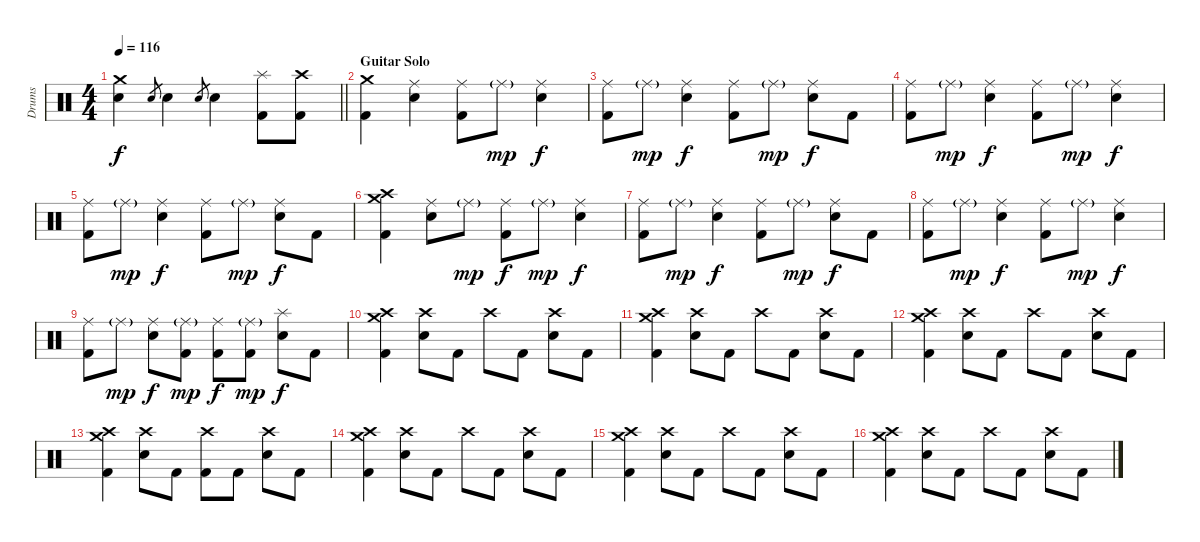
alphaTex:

\track ("Drums" "Drums") {instrument percussion}
\staff {score}
\articulation defaults
\ts (4 4)
\tempo 116
\clef neutral
\barLineRight lightlight
\ks c
("Crash medium (hit)" "Electric Snare (hit)").4{dy f} "Electric Snare (hit)".8{gr} "Electric Snare (hit)".4 "Electric Snare (hit)".8{gr} "Electric Snare (hit)".4 ("Splash (hit)" "Kick (hit) 2").8 ("Crash high (hit)" "Kick (hit) 2").8 |
\section ("" "Guitar Solo")
("Crash medium (hit)" "Kick (hit) 2").4 ("Ride (middle)" "Electric Snare (hit)").4 ("Ride (middle)" "Kick (hit) 2").8 "Ride (middle)"{g}.8{dy mp} ("Ride (middle)" "Electric Snare (hit)").4{dy f} |
("Ride (middle)" "Kick (hit) 2").8 "Ride (middle)"{g}.8{dy mp} ("Ride (middle)" "Electric Snare (hit)").4{dy f} ("Ride (middle)" "Kick (hit) 2").8 "Ride (middle)"{g}.8{dy mp} ("Ride (middle)" "Electric Snare (hit)").8{dy f} "Kick (hit) 2".8 |
("Ride (middle)" "Kick (hit) 2").8 "Ride (middle)"{g}.8{dy mp} ("Ride (middle)" "Electric Snare (hit)").4{dy f} ("Ride (middle)" "Kick (hit) 2").8 "Ride (middle)"{g}.8{dy mp} ("Ride (middle)" "Electric Snare (hit)").4{dy f} |
("Ride (middle)" "Kick (hit) 2").8 "Ride (middle)"{g}.8{dy mp} ("Ride (middle)" "Electric Snare (hit)").4{dy f} ("Ride (middle)" "Kick (hit) 2").8 "Ride (middle)"{g}.8{dy mp} ("Ride (middle)" "Electric Snare (hit)").8{dy f} "Kick (hit) 2".8 |
("Crash medium (hit)" "Crash high (hit)" "Kick (hit) 2").4 ("Ride (middle)" "Electric Snare (hit)").8 "Ride (middle)"{g}.8{dy mp} ("Ride (middle)" "Kick (hit) 2").8{dy f} "Ride (middle)"{g}.8{dy mp} ("Ride (middle)" "Electric Snare (hit)").4{dy f} |
("Ride (middle)" "Kick (hit) 2").8 "Ride (middle)"{g}.8{dy mp} ("Ride (middle)" "Electric Snare (hit)").4{dy f} ("Ride (middle)" "Kick (hit) 2").8 "Ride (middle)"{g}.8{dy mp} ("Ride (middle)" "Electric Snare (hit)").8{dy f} "Kick (hit) 2".8 |
("Ride (middle)" "Kick (hit) 2").8 "Ride (middle)"{g}.8{dy mp} ("Ride (middle)" "Electric Snare (hit)").4{dy f} ("Ride (middle)" "Kick (hit) 2").8 "Ride (middle)"{g}.8{dy mp} ("Ride (middle)" "Electric Snare (hit)").4{dy f} |
("Ride (middle)" "Kick (hit) 2").8 "Ride (middle)"{g}.8{dy mp} ("Ride (middle)" "Electric Snare (hit)").8{dy f} ("Ride (middle)"{g} "Kick (hit) 2").8{dy mp} ("Ride (middle)" "Kick (hit) 2").8{dy f} ("Ride (middle)"{g} "Kick (hit) 2").8{dy mp} ("Splash (hit)" "Electric Snare (hit)").8{dy f} "Kick (hit) 2".8 |
("Crash medium (hit)" "Crash high (hit)" "Kick (hit) 2").4 ("Crash high (hit)" "Electric Snare (hit)").8 "Kick (hit) 2".8 "Crash high (hit)".8 "Kick (hit) 2".8 ("Crash high (hit)" "Electric Snare (hit)").8 "Kick (hit) 2".8 |
("Crash medium (hit)" "Crash high (hit)" "Kick (hit) 2").4 ("Crash high (hit)" "Electric Snare (hit)").8 "Kick (hit) 2".8 "Crash high (hit)".8 "Kick (hit) 2".8 ("Crash high (hit)" "Electric Snare (hit)").8 "Kick (hit) 2".8 |
("Crash medium (hit)" "Crash high (hit)" "Kick (hit) 2").4 ("Crash high (hit)" "Electric Snare (hit)").8 "Kick (hit) 2".8 "Crash high (hit)".8 "Kick (hit) 2".8 ("Crash high (hit)" "Electric Snare (hit)").8 "Kick (hit) 2".8 |
("Crash medium (hit)" "Crash high (hit)" "Kick (hit) 2").4 ("Crash high (hit)" "Electric Snare (hit)").8 "Kick (hit) 2".8 ("Crash high (hit)" "Kick (hit) 2").8 "Kick (hit) 2".8 ("Crash high (hit)" "Electric Snare (hit)").8 "Kick (hit) 2".8 |
("Crash medium (hit)" "Crash high (hit)" "Kick (hit) 2").4 ("Crash high (hit)" "Electric Snare (hit)").8 "Kick (hit) 2".8 "Crash high (hit)".8 "Kick (hit) 2".8 ("Crash high (hit)" "Electric Snare (hit)").8 "Kick (hit) 2".8 |
("Crash medium (hit)" "Crash high (hit)" "Kick (hit) 2").4 ("Crash high (hit)" "Electric Snare (hit)").8 "Kick (hit) 2".8 "Crash high (hit)".8 "Kick (hit) 2".8 ("Crash high (hit)" "Electric Snare (hit)").8 "Kick (hit) 2".8 |
("Crash medium (hit)" "Crash high (hit)" "Kick (hit) 2").4 ("Crash high (hit)" "Electric Snare (hit)").8 "Kick (hit) 2".8 "Crash high (hit)".8 "Kick (hit) 2".8 ("Crash high (hit)" "Electric Snare (hit)").8 "Kick (hit) 2".8
